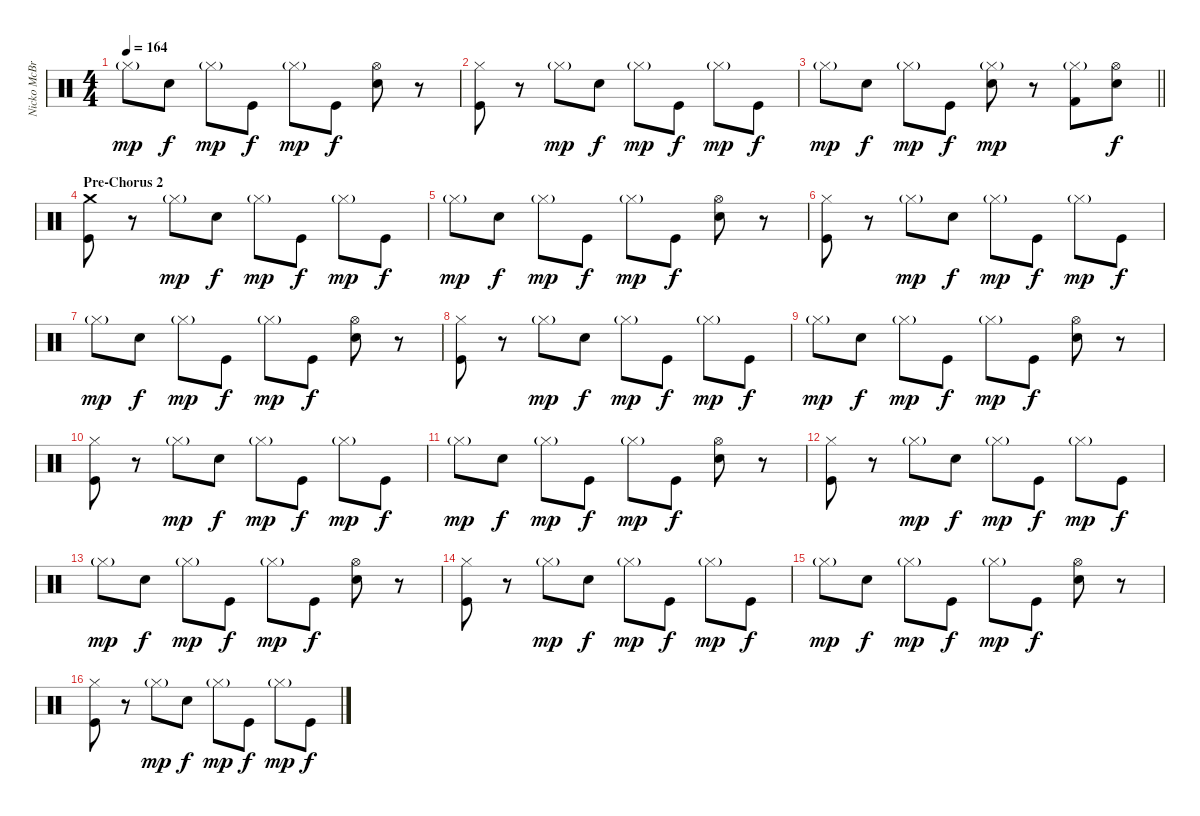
\track ("Nicko McBrain" "Nicko McBr") {instrument percussion}
\staff {score}
\articulation defaults
\ts (4 4)
\tempo 164
\clef neutral
\ks c "Hi-Hat (closed)"{g}.8{dy mp} "Electric Snare (hit)".8{dy f} "Hi-Hat (closed)"{g}.8{dy mp} "Kick (hit)".8{dy f} "Hi-Hat (closed)"{g}.8{dy mp} "Kick (hit)".8{dy f}
("Hi-Hat (open)" "Electric Snare (hit)").8 r.8 |
("Hi-Hat (closed)" "Kick (hit)").8 r.8 "Hi-Hat (closed)"{g}.8{dy mp} "Electric Snare (hit)".8{dy f} "Hi-Hat (closed)"{g}.8{dy mp} "Kick (hit)".8{dy f} "Hi-Hat (closed)"{g}.8{dy mp} "Kick (hit)".8{dy f} |
\barLineRight lightlight "Hi-Hat (closed)"{g}.8{dy mp} "Electric Snare (hit)".8{dy f} "Hi-Hat (closed)"{g}.8{dy mp} "Kick (hit)".8{dy f}
("Hi-Hat (closed)"{g} "Electric Snare (hit)").8{dy mp} r.8 ("Hi-Hat (closed)"{g} "Kick (hit) 2").8 ("Hi-Hat (open)" "Electric Snare (hit)").8{dy f} |
\section ("" "Pre-Chorus 2")
("Crash medium (hit)" "Kick (hit)").8 r.8 "Hi-Hat (closed)"{g}.8{dy mp} "Electric Snare (hit)".8{dy f} "Hi-Hat (closed)"{g}.8{dy mp} "Kick (hit)".8{dy f} "Hi-Hat (closed)"{g}.8{dy mp} "Kick (hit)".8{dy f} |
"Hi-Hat (closed)"{g}.8{dy mp} "Electric Snare (hit)".8{dy f} "Hi-Hat (closed)"{g}.8{dy mp} "Kick (hit)".8{dy f} "Hi-Hat (closed)"{g}.8{dy mp} "Kick (hit)".8{dy f} ("Hi-Hat (open)" "Electric Snare (hit)").8 r.8 |
("Hi-Hat (closed)" "Kick (hit)").8 r.8 "Hi-Hat (closed)"{g}.8{dy mp} "Electric Snare (hit)".8{dy f} "Hi-Hat (closed)"{g}.8{dy mp} "Kick (hit)".8{dy f} "Hi-Hat (closed)"{g}.8{dy mp} "Kick (hit)".8{dy f} |
"Hi-Hat (closed)"{g}.8{dy mp} "Electric Snare (hit)".8{dy f} "Hi-Hat (closed)"{g}.8{dy mp} "Kick (hit)".8{dy f} "Hi-Hat (closed)"{g}.8{dy mp} "Kick (hit)".8{dy f} ("Hi-Hat (open)" "Electric Snare (hit)").8 r.8 |
("Hi-Hat (closed)" "Kick (hit)").8 r.8 "Hi-Hat (closed)"{g}.8{dy mp} "Electric Snare (hit)".8{dy f} "Hi-Hat (closed)"{g}.8{dy mp} "Kick (hit)".8{dy f} "Hi-Hat (closed)"{g}.8{dy mp} "Kick (hit)".8{dy f} |
"Hi-Hat (closed)"{g}.8{dy mp} "Electric Snare (hit)".8{dy f} "Hi-Hat (closed)"{g}.8{dy mp} "Kick (hit)".8{dy f} "Hi-Hat (closed)"{g}.8{dy mp} "Kick (hit)".8{dy f} ("Hi-Hat (open)" "Electric Snare (hit)").8 r.8 |
("Hi-Hat (closed)" "Kick (hit)").8 r.8 "Hi-Hat (closed)"{g}.8{dy mp} "Electric Snare (hit)".8{dy f} "Hi-Hat (closed)"{g}.8{dy mp} "Kick (hit)".8{dy f} "Hi-Hat (closed)"{g}.8{dy mp} "Kick (hit)".8{dy f} |
"Hi-Hat (closed)"{g}.8{dy mp} "Electric Snare (hit)".8{dy f} "Hi-Hat (closed)"{g}.8{dy mp} "Kick (hit)".8{dy f} "Hi-Hat (closed)"{g}.8{dy mp} "Kick (hit)".8{dy f} ("Hi-Hat (open)" "Electric Snare (hit)").8 r.8 |
("Hi-Hat (closed)" "Kick (hit)").8 r.8 "Hi-Hat (closed)"{g}.8{dy mp} "Electric Snare (hit)".8{dy f} "Hi-Hat (closed)"{g}.8{dy mp} "Kick (hit)".8{dy f} "Hi-Hat (closed)"{g}.8{dy mp} "Kick (hit)".8{dy f} |
"Hi-Hat (closed)"{g}.8{dy mp} "Electric Snare (hit)".8{dy f} "Hi-Hat (closed)"{g}.8{dy mp} "Kick (hit)".8{dy f} "Hi-Hat (closed)"{g}.8{dy mp} "Kick (hit)".8{dy f} ("Hi-Hat (open)" "Electric Snare (hit)").8 r.8 |
("Hi-Hat (closed)" "Kick (hit)").8 r.8 "Hi-Hat (closed)"{g}.8{dy mp} "Electric Snare (hit)".8{dy f} "Hi-Hat (closed)"{g}.8{dy mp} "Kick (hit)".8{dy f} "Hi-Hat (closed)"{g}.8{dy mp} "Kick (hit)".8{dy f} |
"Hi-Hat (closed)"{g}.8{dy mp} "Electric Snare (hit)".8{dy f} "Hi-Hat (closed)"{g}.8{dy mp} "Kick (hit)".8{dy f} "Hi-Hat (closed)"{g}.8{dy mp} "Kick (hit)".8{dy f} ("Hi-Hat (open)" "Electric Snare (hit)").8 r.8 |
("Hi-Hat (closed)" "Kick (hit)").8 r.8 "Hi-Hat (closed)"{g}.8{dy mp} "Electric Snare (hit)".8{dy f} "Hi-Hat (closed)"{g}.8{dy mp} "Kick (hit)".8{dy f} "Hi-Hat (closed)"{g}.8{dy mp} "Kick (hit)".8{dy f}
